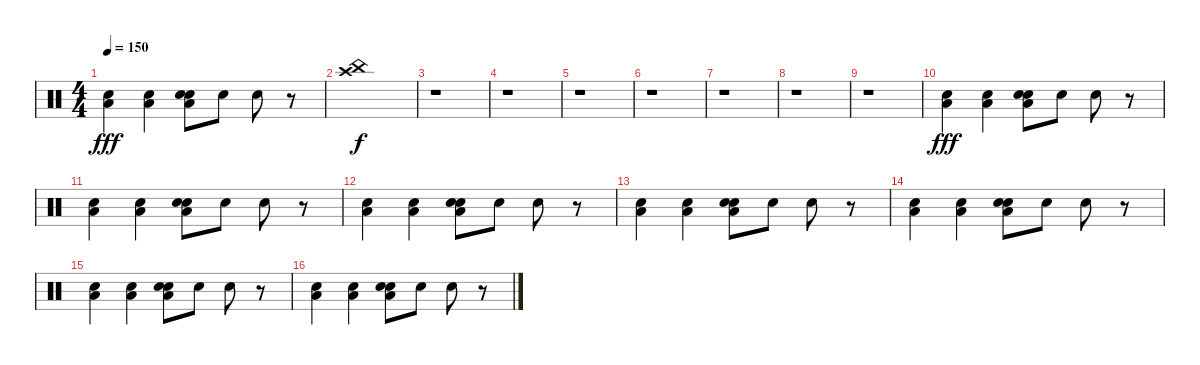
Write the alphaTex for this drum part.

\track "" {instrument percussion}
\staff {score}
\articulation defaults
\ts (4 4)
\tempo 150
\clef neutral
\ks c
("Low Floor Tom (hit)" "Electric Snare (hit)").4{dy fff} ("Low Floor Tom (hit)" "Electric Snare (hit)").4 ("Electric Snare (hit)" "Low Floor Tom (hit)" "Electric Snare (hit)").8 "Electric Snare (hit)".8 "Electric Snare (hit)".8 r.8 |
("China (hit)" "Crash high (hit)").1{dy f} |
r.1 |
r.1 |
r.1 |
r.1 |
r.1 |
r.1 |
r.1 |
("Low Floor Tom (hit)" "Snare (hit) 2").4{dy fff} ("Low Floor Tom (hit)" "Snare (hit) 2").4 ("Electric Snare (hit)" "Low Floor Tom (hit)" "Snare (hit) 2").8 "Electric Snare (hit)".8 "Electric Snare (hit)".8 r.8 |
("Low Floor Tom (hit)" "Snare (hit) 2").4 ("Low Floor Tom (hit)" "Snare (hit) 2").4 ("Electric Snare (hit)" "Low Floor Tom (hit)" "Snare (hit) 2").8 "Electric Snare (hit)".8 "Electric Snare (hit)".8 r.8 |
("Low Floor Tom (hit)" "Electric Snare (hit)").4 ("Low Floor Tom (hit)" "Electric Snare (hit)").4 ("Electric Snare (hit)" "Low Floor Tom (hit)" "Electric Snare (hit)").8 "Electric Snare (hit)".8 "Electric Snare (hit)".8 r.8 |
("Low Floor Tom (hit)" "Electric Snare (hit)").4 ("Low Floor Tom (hit)" "Electric Snare (hit)").4 ("Electric Snare (hit)" "Low Floor Tom (hit)" "Electric Snare (hit)").8 "Electric Snare (hit)".8 "Electric Snare (hit)".8 r.8 |
("Low Floor Tom (hit)" "Electric Snare (hit)").4 ("Low Floor Tom (hit)" "Electric Snare (hit)").4 ("Electric Snare (hit)" "Low Floor Tom (hit)" "Electric Snare (hit)").8 "Electric Snare (hit)".8 "Electric Snare (hit)".8 r.8 |
("Low Floor Tom (hit)" "Electric Snare (hit)").4 ("Low Floor Tom (hit)" "Electric Snare (hit)").4 ("Electric Snare (hit)" "Low Floor Tom (hit)" "Electric Snare (hit)").8 "Electric Snare (hit)".8 "Electric Snare (hit)".8 r.8 |
("Low Floor Tom (hit)" "Snare (hit) 2").4 ("Low Floor Tom (hit)" "Snare (hit) 2").4 ("Electric Snare (hit)" "Low Floor Tom (hit)" "Snare (hit) 2").8 "Electric Snare (hit)".8 "Electric Snare (hit)".8 r.8
